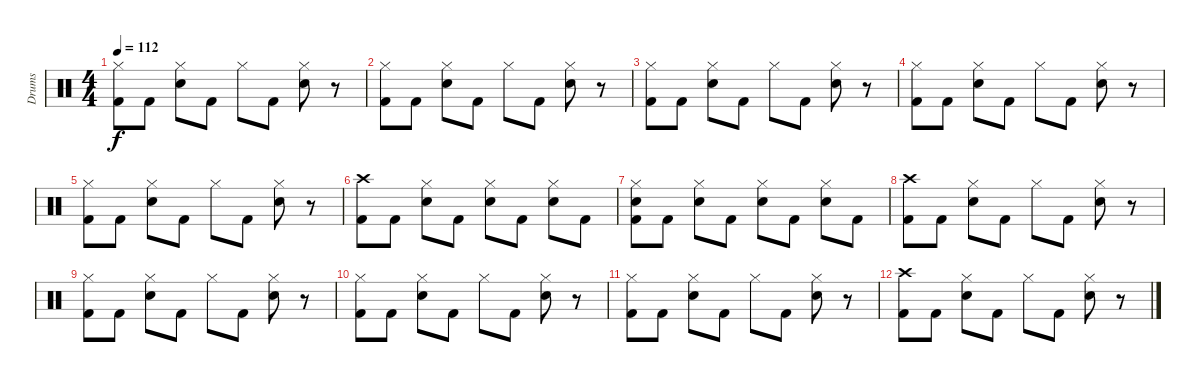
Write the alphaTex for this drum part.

\track ("Drums" "Drums") {instrument percussion}
\staff {score}
\articulation defaults
\ts (4 4)
\tempo 112
\clef neutral
\ks c
("Hi-Hat (closed)" "Kick (hit) 2").8{dy f} "Kick (hit) 2".8 ("Hi-Hat (closed)" "Snare (hit) 2").8 "Kick (hit) 2".8 "Hi-Hat (closed)".8 "Kick (hit) 2".8 ("Snare (hit) 2" "Hi-Hat (closed)").8 r.8 |
("Hi-Hat (closed)" "Kick (hit) 2").8 "Kick (hit) 2".8 ("Hi-Hat (closed)" "Snare (hit) 2").8 "Kick (hit) 2".8 "Hi-Hat (closed)".8 "Kick (hit) 2".8 ("Snare (hit) 2" "Hi-Hat (closed)").8 r.8 |
("Hi-Hat (closed)" "Kick (hit) 2").8 "Kick (hit) 2".8 ("Hi-Hat (closed)" "Snare (hit) 2").8 "Kick (hit) 2".8 "Hi-Hat (closed)".8 "Kick (hit) 2".8 ("Snare (hit) 2" "Hi-Hat (closed)").8 r.8 |
("Hi-Hat (closed)" "Kick (hit) 2").8 "Kick (hit) 2".8 ("Hi-Hat (closed)" "Snare (hit) 2").8 "Kick (hit) 2".8 "Hi-Hat (closed)".8 "Kick (hit) 2".8 ("Snare (hit) 2" "Hi-Hat (closed)").8 r.8 |
("Hi-Hat (closed)" "Kick (hit) 2").8 "Kick (hit) 2".8 ("Hi-Hat (closed)" "Snare (hit) 2").8 "Kick (hit) 2".8 "Hi-Hat (closed)".8 "Kick (hit) 2".8 ("Snare (hit) 2" "Hi-Hat (closed)").8 r.8 |
("Crash high (hit)" "Kick (hit) 2").8 "Kick (hit) 2".8 ("Hi-Hat (closed)" "Snare (hit) 2").8 "Kick (hit) 2".8 ("Snare (hit) 2" "Hi-Hat (closed)").8 "Kick (hit) 2".8 ("Snare (hit) 2" "Hi-Hat (closed)").8 "Kick (hit) 2".8 |
("Hi-Hat (closed)" "Snare (hit) 2" "Kick (hit) 2").8 "Kick (hit) 2".8 ("Hi-Hat (closed)" "Snare (hit) 2").8 "Kick (hit) 2".8 ("Snare (hit) 2" "Hi-Hat (closed)").8 "Kick (hit) 2".8 ("Snare (hit) 2" "Hi-Hat (closed)").8 "Kick (hit) 2".8 |
("Crash high (hit)" "Kick (hit) 2").8 "Kick (hit) 2".8 ("Hi-Hat (closed)" "Snare (hit) 2").8 "Kick (hit) 2".8 "Hi-Hat (closed)".8 "Kick (hit) 2".8 ("Snare (hit) 2" "Hi-Hat (closed)").8 r.8 |
("Hi-Hat (closed)" "Kick (hit) 2").8 "Kick (hit) 2".8 ("Hi-Hat (closed)" "Snare (hit) 2").8 "Kick (hit) 2".8 "Hi-Hat (closed)".8 "Kick (hit) 2".8 ("Snare (hit) 2" "Hi-Hat (closed)").8 r.8 |
("Hi-Hat (closed)" "Kick (hit) 2").8 "Kick (hit) 2".8 ("Hi-Hat (closed)" "Snare (hit) 2").8 "Kick (hit) 2".8 "Hi-Hat (closed)".8 "Kick (hit) 2".8 ("Snare (hit) 2" "Hi-Hat (closed)").8 r.8 |
("Hi-Hat (closed)" "Kick (hit) 2").8{volume 0} "Kick (hit) 2".8 ("Hi-Hat (closed)" "Snare (hit) 2").8 "Kick (hit) 2".8 "Hi-Hat (closed)".8 "Kick (hit) 2".8 ("Snare (hit) 2" "Hi-Hat (closed)").8 r.8 |
("Crash high (hit)" "Kick (hit) 2").8 "Kick (hit) 2".8 ("Hi-Hat (closed)" "Snare (hit) 2").8 "Kick (hit) 2".8 "Hi-Hat (closed)".8 "Kick (hit) 2".8 ("Snare (hit) 2" "Hi-Hat (closed)").8 r.8
